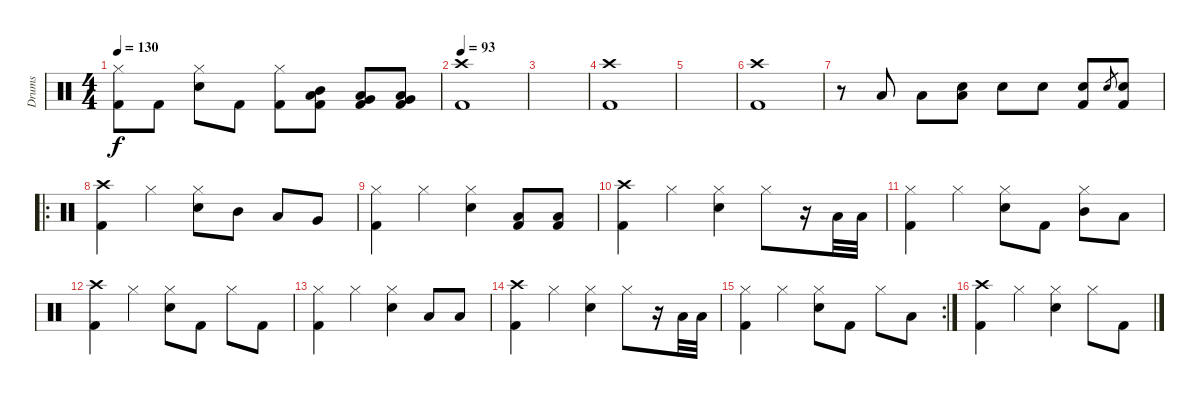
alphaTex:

\track ("Drums" "Drums") {instrument percussion}
\staff {score}
\articulation defaults
\ts (4 4)
\tempo 130
\clef neutral
\ks c
("Hi-Hat (closed)" "Kick (hit) 2").8{dy f} "Kick (hit) 2".8 ("Hi-Hat (closed)" "Snare (hit) 2").8 "Kick (hit) 2".8 ("Hi-Hat (closed)" "Kick (hit) 2").8 ("Mid Tom (hit)" "Low Tom (hit)" "Kick (hit) 2").8 ("Low Tom (hit)" "Very Low Tom (hit)" "Kick (hit) 2").8 ("Very Low Tom (hit)" "Low Floor Tom (hit)" "Kick (hit) 2").8 |
\tempo 93
("Crash high (hit)" "Kick (hit) 2").1 |
|
("Crash high (hit)" "Kick (hit) 2").1 |
|
("Crash high (hit)" "Kick (hit) 2").1 |
r.8 "Low Tom (hit)".8 "Low Tom (hit)".8 ("Low Tom (hit)" "Snare (hit) 2").8 "Snare (hit) 2".8 "Snare (hit) 2".8 ("Snare (hit) 2" "Kick (hit) 2").8 "Electric Snare (hit)".8{gr} ("Snare (hit) 2" "Kick (hit) 2").8 |
\ro
("Crash high (hit)" "Kick (hit) 2").4 "Hi-Hat (closed)".4 ("Hi-Hat (closed)" "Snare (hit) 2").8 "Mid Tom (hit)".8 "Low Tom (hit)".8 "Very Low Tom (hit)".8 |
("Hi-Hat (closed)" "Kick (hit) 2").4 "Hi-Hat (closed)".4 ("Hi-Hat (closed)" "Snare (hit) 2").4 ("Low Tom (hit)" "Kick (hit) 2").8 ("Low Tom (hit)" "Kick (hit) 2").8 |
("Crash high (hit)" "Kick (hit) 2").4 "Hi-Hat (closed)".4 ("Hi-Hat (closed)" "Snare (hit) 2").4 "Hi-Hat (closed)".8 r.16 "Low Tom (hit)".32 "Low Tom (hit)".32 |
("Hi-Hat (closed)" "Kick (hit) 2").4 "Hi-Hat (closed)".4 ("Hi-Hat (closed)" "Snare (hit) 2").8 "Kick (hit) 2".8 ("Hi-Hat (closed)" "Mid Tom (hit)").8 "Low Tom (hit)".8 |
("Crash high (hit)" "Kick (hit) 2").4 "Hi-Hat (closed)".4 ("Hi-Hat (closed)" "Snare (hit) 2").8 "Kick (hit) 2".8 "Hi-Hat (closed)".8 "Kick (hit) 2".8 |
("Hi-Hat (closed)" "Kick (hit) 2").4 "Hi-Hat (closed)".4 ("Hi-Hat (closed)" "Snare (hit) 2").4 "Low Tom (hit)".8 "Low Tom (hit)".8 |
("Crash high (hit)" "Kick (hit) 2").4 "Hi-Hat (closed)".4 ("Hi-Hat (closed)" "Snare (hit) 2").4 "Hi-Hat (closed)".8 r.16 "Low Tom (hit)".32 "Low Tom (hit)".32 |
\rc 2
("Hi-Hat (closed)" "Kick (hit) 2").4 "Hi-Hat (closed)".4 ("Hi-Hat (closed)" "Snare (hit) 2").8 "Kick (hit) 2".8 "Hi-Hat (closed)".8 "Low Tom (hit)".8 |
("Crash high (hit)" "Kick (hit) 2").4 "Hi-Hat (closed)".4 ("Hi-Hat (closed)" "Snare (hit) 2").4 "Hi-Hat (closed)".8 "Kick (hit) 2".8
